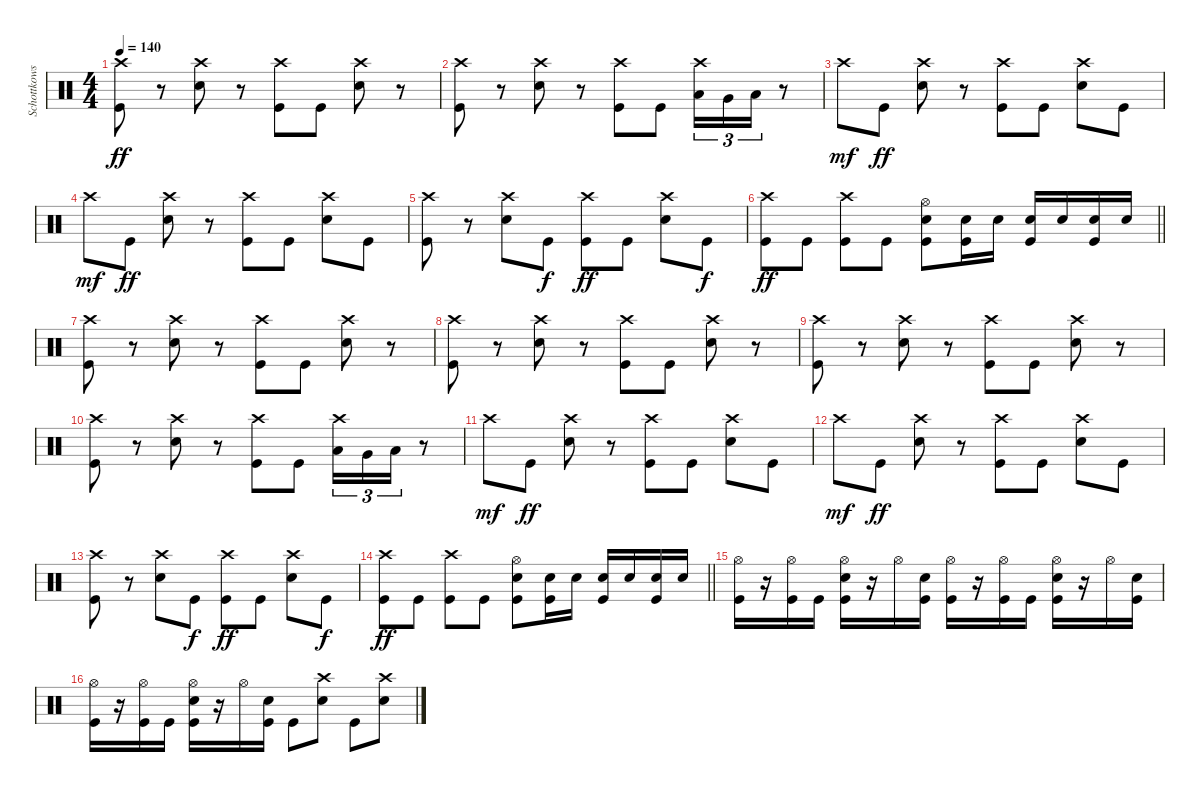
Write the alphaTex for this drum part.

\track ("Schottkowski" "Schottkows") {instrument percussion}
\staff {score}
\articulation defaults
\ts (4 4)
\tempo 140
\clef neutral
\ks c
("Crash high (hit)" "Kick (hit)").8{dy ff} r.8 ("Crash high (hit)" "Snare (hit) 2").8 r.8 ("Crash high (hit)" "Kick (hit)").8 "Kick (hit)".8 ("Crash high (hit)" "Snare (hit) 2").8 r.8 |
("Crash high (hit)" "Kick (hit)").8 r.8 ("Crash high (hit)" "Snare (hit) 2").8 r.8 ("Crash high (hit)" "Kick (hit)").8 "Kick (hit)".8 ("Crash high (hit)" "Low Tom (hit)").16{tu (3 2)} "Very Low Tom (hit)".16{tu (3 2)} "Low Floor Tom (hit)".16{tu (3 2)} r.8 |
"Crash high (hit)".8{dy mf} "Kick (hit)".8{dy ff} ("Crash high (hit)" "Snare (hit) 2").8 r.8 ("Crash high (hit)" "Kick (hit)").8 "Kick (hit)".8 ("Crash high (hit)" "Snare (hit) 2").8 "Kick (hit)".8 |
"Crash high (hit)".8{dy mf} "Kick (hit)".8{dy ff} ("Crash high (hit)" "Snare (hit) 2").8 r.8 ("Crash high (hit)" "Kick (hit)").8 "Kick (hit)".8 ("Crash high (hit)" "Snare (hit) 2").8 "Kick (hit)".8 |
("Crash high (hit)" "Kick (hit)").8 r.8 ("Crash high (hit)" "Snare (hit) 2").8 "Kick (hit)".8{dy f} ("Crash high (hit)" "Kick (hit)").8{dy ff} "Kick (hit)".8 ("Crash high (hit)" "Snare (hit) 2").8 "Kick (hit)".8{dy f} |
\barLineRight lightlight
("Crash high (hit)" "Kick (hit)").8{dy ff} "Kick (hit)".8 ("Crash high (hit)" "Kick (hit)").8 "Kick (hit)".8 ("Hi-Hat (open)" "Snare (hit) 2" "Kick (hit)").8 ("Snare (hit) 2" "Kick (hit)").16 "Snare (hit) 2".16 ("Snare (hit) 2" "Kick (hit)").16 "Snare (hit) 2".16 ("Snare (hit) 2" "Kick (hit)").16 "Snare (hit) 2".16 |
("Crash high (hit)" "Kick (hit)").8 r.8 ("Crash high (hit)" "Snare (hit) 2").8 r.8 ("Crash high (hit)" "Kick (hit)").8 "Kick (hit)".8 ("Crash high (hit)" "Snare (hit) 2").8 r.8 |
("Crash high (hit)" "Kick (hit)").8 r.8 ("Crash high (hit)" "Snare (hit) 2").8 r.8 ("Crash high (hit)" "Kick (hit)").8 "Kick (hit)".8 ("Crash high (hit)" "Snare (hit) 2").8 r.8 |
("Crash high (hit)" "Kick (hit)").8 r.8 ("Crash high (hit)" "Snare (hit) 2").8 r.8 ("Crash high (hit)" "Kick (hit)").8 "Kick (hit)".8 ("Crash high (hit)" "Snare (hit) 2").8 r.8 |
("Crash high (hit)" "Kick (hit)").8 r.8 ("Crash high (hit)" "Snare (hit) 2").8 r.8 ("Crash high (hit)" "Kick (hit)").8 "Kick (hit)".8 ("Crash high (hit)" "Low Tom (hit)").16{tu (3 2)} "Very Low Tom (hit)".16{tu (3 2)} "Low Floor Tom (hit)".16{tu (3 2)} r.8 |
"Crash high (hit)".8{dy mf} "Kick (hit)".8{dy ff} ("Crash high (hit)" "Snare (hit) 2").8 r.8 ("Crash high (hit)" "Kick (hit)").8 "Kick (hit)".8 ("Crash high (hit)" "Snare (hit) 2").8 "Kick (hit)".8 |
"Crash high (hit)".8{dy mf} "Kick (hit)".8{dy ff} ("Crash high (hit)" "Snare (hit) 2").8 r.8 ("Crash high (hit)" "Kick (hit)").8 "Kick (hit)".8 ("Crash high (hit)" "Snare (hit) 2").8 "Kick (hit)".8 |
("Crash high (hit)" "Kick (hit)").8 r.8 ("Crash high (hit)" "Snare (hit) 2").8 "Kick (hit)".8{dy f} ("Crash high (hit)" "Kick (hit)").8{dy ff} "Kick (hit)".8 ("Crash high (hit)" "Snare (hit) 2").8 "Kick (hit)".8{dy f} |
\barLineRight lightlight
("Crash high (hit)" "Kick (hit)").8{dy ff} "Kick (hit)".8 ("Crash high (hit)" "Kick (hit)").8 "Kick (hit)".8 ("Hi-Hat (open)" "Snare (hit) 2" "Kick (hit)").8 ("Snare (hit) 2" "Kick (hit)").16 "Snare (hit) 2".16 ("Snare (hit) 2" "Kick (hit)").16 "Snare (hit) 2".16 ("Snare (hit) 2" "Kick (hit)").16 "Snare (hit) 2".16 |
\section ("" "")
("Hi-Hat (open)" "Kick (hit)").16 r.16 ("Hi-Hat (open)" "Kick (hit)").16 "Kick (hit)".16 ("Hi-Hat (open)" "Snare (hit) 2" "Kick (hit)").16 r.16 "Hi-Hat (open)".16 ("Snare (hit) 2" "Kick (hit)").16 ("Hi-Hat (open)" "Kick (hit)").16 r.16 ("Hi-Hat (open)" "Kick (hit)").16 "Kick (hit)".16 ("Hi-Hat (open)" "Snare (hit) 2" "Kick (hit)").16 r.16 "Hi-Hat (open)".16 ("Snare (hit) 2" "Kick (hit)").16 |
("Hi-Hat (open)" "Kick (hit)").16 r.16 ("Hi-Hat (open)" "Kick (hit)").16 "Kick (hit)".16 ("Hi-Hat (open)" "Snare (hit) 2" "Kick (hit)").16 r.16 "Hi-Hat (open)".16 ("Snare (hit) 2" "Kick (hit)").16 "Kick (hit)".8 ("Crash high (hit)" "Snare (hit) 2").8 "Kick (hit)".8 ("Crash high (hit)" "Snare (hit) 2").8
